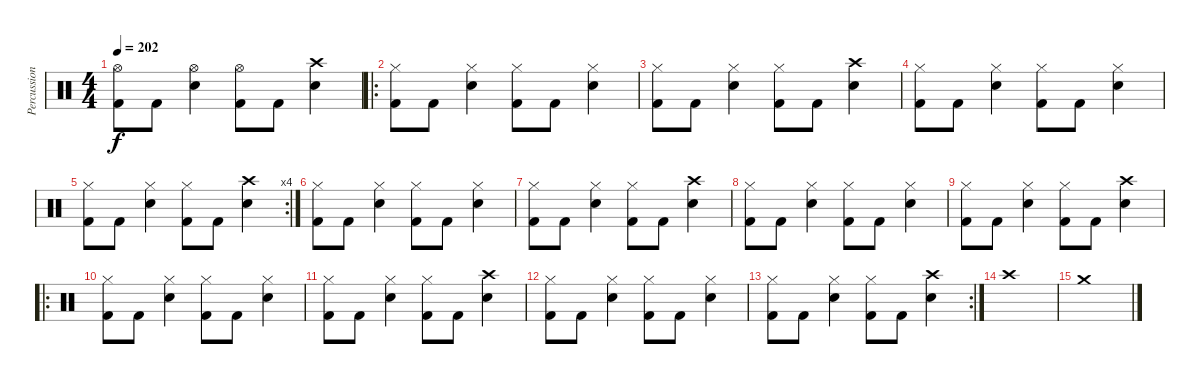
\track ("Percussion" "Percussion") {instrument percussion}
\staff {score}
\articulation defaults
\ts (4 4)
\tempo 202
\clef neutral
\ks c
("Hi-Hat (open)" "Kick (hit) 2").8{dy f} "Kick (hit) 2".8 ("Hi-Hat (open)" "Electric Snare (hit)").4 ("Hi-Hat (open)" "Kick (hit) 2").8 "Kick (hit) 2".8 ("Crash high (hit)" "Electric Snare (hit)").4 |
\ro
("Hi-Hat (closed)" "Kick (hit) 2").8 "Kick (hit) 2".8 ("Hi-Hat (closed)" "Electric Snare (hit)").4 ("Hi-Hat (closed)" "Kick (hit) 2").8 "Kick (hit) 2".8 ("Hi-Hat (closed)" "Electric Snare (hit)").4 |
("Hi-Hat (closed)" "Kick (hit) 2").8 "Kick (hit) 2".8 ("Hi-Hat (closed)" "Electric Snare (hit)").4 ("Hi-Hat (closed)" "Kick (hit) 2").8 "Kick (hit) 2".8 ("Crash high (hit)" "Electric Snare (hit)").4 |
("Hi-Hat (closed)" "Kick (hit) 2").8 "Kick (hit) 2".8 ("Hi-Hat (closed)" "Electric Snare (hit)").4 ("Hi-Hat (closed)" "Kick (hit) 2").8 "Kick (hit) 2".8 ("Hi-Hat (closed)" "Electric Snare (hit)").4 |
\rc 4
("Hi-Hat (closed)" "Kick (hit) 2").8 "Kick (hit) 2".8 ("Hi-Hat (closed)" "Electric Snare (hit)").4 ("Hi-Hat (closed)" "Kick (hit) 2").8 "Kick (hit) 2".8 ("Crash high (hit)" "Electric Snare (hit)").4 |
("Hi-Hat (closed)" "Kick (hit) 2").8 "Kick (hit) 2".8 ("Hi-Hat (closed)" "Electric Snare (hit)").4 ("Hi-Hat (closed)" "Kick (hit) 2").8 "Kick (hit) 2".8 ("Hi-Hat (closed)" "Electric Snare (hit)").4 |
("Hi-Hat (closed)" "Kick (hit) 2").8 "Kick (hit) 2".8 ("Hi-Hat (closed)" "Electric Snare (hit)").4 ("Hi-Hat (closed)" "Kick (hit) 2").8 "Kick (hit) 2".8 ("Crash high (hit)" "Electric Snare (hit)").4 |
("Hi-Hat (closed)" "Kick (hit) 2").8 "Kick (hit) 2".8 ("Hi-Hat (closed)" "Electric Snare (hit)").4 ("Hi-Hat (closed)" "Kick (hit) 2").8 "Kick (hit) 2".8 ("Hi-Hat (closed)" "Electric Snare (hit)").4 |
("Hi-Hat (closed)" "Kick (hit) 2").8 "Kick (hit) 2".8 ("Hi-Hat (closed)" "Electric Snare (hit)").4 ("Hi-Hat (closed)" "Kick (hit) 2").8 "Kick (hit) 2".8 ("Crash high (hit)" "Electric Snare (hit)").4 |
\ro
("Hi-Hat (closed)" "Kick (hit) 2").8 "Kick (hit) 2".8 ("Hi-Hat (closed)" "Electric Snare (hit)").4 ("Hi-Hat (closed)" "Kick (hit) 2").8 "Kick (hit) 2".8 ("Hi-Hat (closed)" "Electric Snare (hit)").4 |
("Hi-Hat (closed)" "Kick (hit) 2").8 "Kick (hit) 2".8 ("Hi-Hat (closed)" "Electric Snare (hit)").4 ("Hi-Hat (closed)" "Kick (hit) 2").8 "Kick (hit) 2".8 ("Crash high (hit)" "Electric Snare (hit)").4 |
("Hi-Hat (closed)" "Kick (hit) 2").8 "Kick (hit) 2".8 ("Hi-Hat (closed)" "Electric Snare (hit)").4 ("Hi-Hat (closed)" "Kick (hit) 2").8 "Kick (hit) 2".8 ("Hi-Hat (closed)" "Electric Snare (hit)").4 |
\rc 2
("Hi-Hat (closed)" "Kick (hit) 2").8 "Kick (hit) 2".8 ("Hi-Hat (closed)" "Electric Snare (hit)").4 ("Hi-Hat (closed)" "Kick (hit) 2").8 "Kick (hit) 2".8 ("Crash high (hit)" "Electric Snare (hit)").4 |
"Crash high (hit)".1 |
"Crash medium (hit)".1
